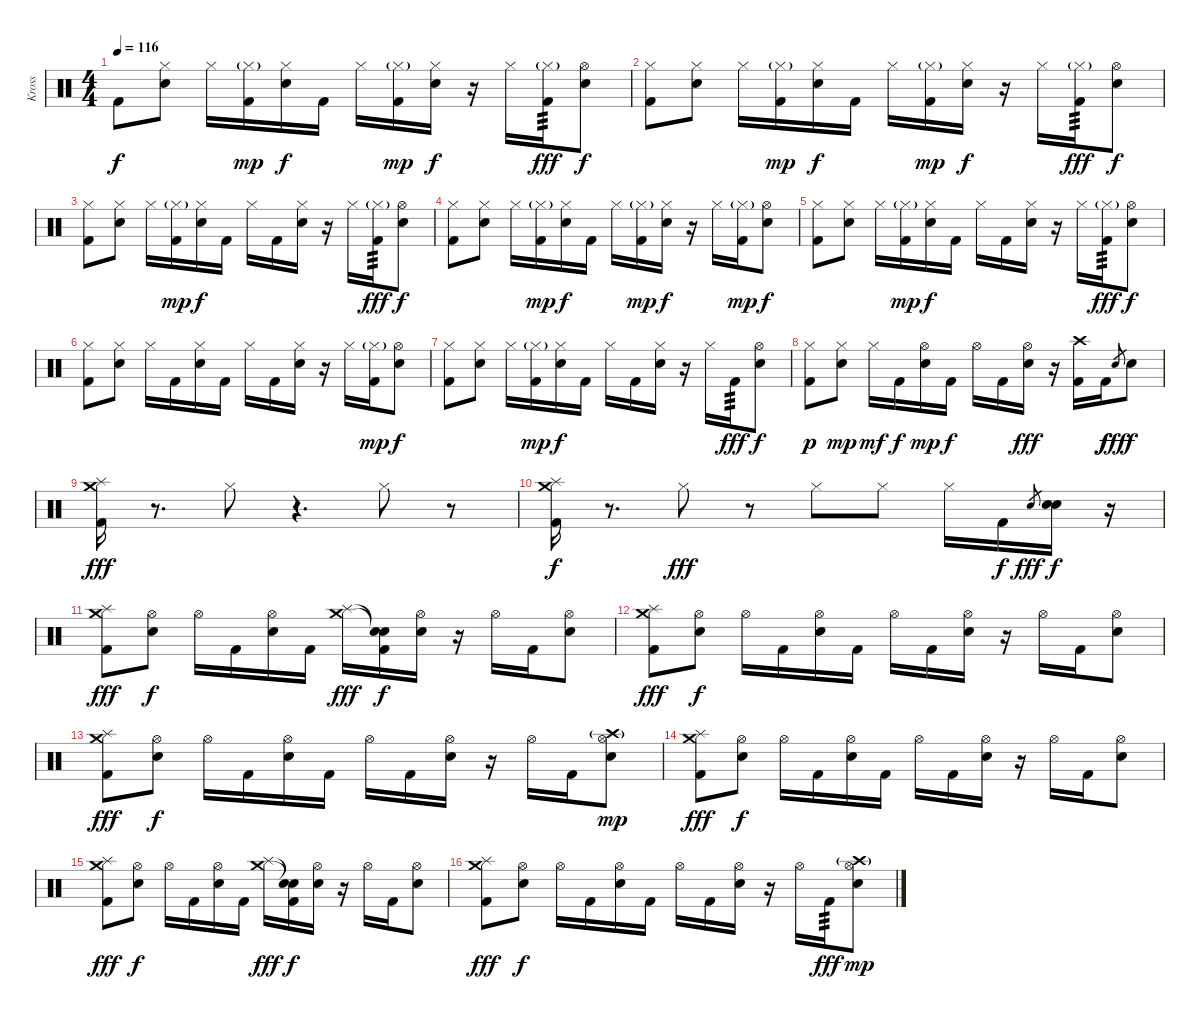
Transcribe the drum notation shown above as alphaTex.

\track ("Kross" "Kross") {instrument percussion}
\staff {score}
\articulation defaults
\ts (4 4)
\tempo 116
\clef neutral
\ks c "Kick (hit) 2".8{dy f}
("Hi-Hat (closed)" "Electric Snare (hit)").8 "Hi-Hat (closed)".16 ("Hi-Hat (closed)"{g} "Kick (hit) 2").16{dy mp} ("Hi-Hat (closed)" "Electric Snare (hit)").16{dy f} "Kick (hit) 2".16 "Hi-Hat (closed)".16 ("Hi-Hat (closed)"{g} "Kick (hit) 2").16{dy mp} ("Hi-Hat (closed)" "Electric Snare (hit)").16{dy f} r.16 "Hi-Hat (closed)".16 ("Hi-Hat (closed)"{g} "Kick (hit) 2").16{tp 3 dy fff} ("Hi-Hat (open)" "Electric Snare (hit)").8{dy f} |
("Hi-Hat (closed)" "Kick (hit) 2").8 ("Hi-Hat (closed)" "Electric Snare (hit)").8 "Hi-Hat (closed)".16 ("Hi-Hat (closed)"{g} "Kick (hit) 2").16{dy mp} ("Hi-Hat (closed)" "Electric Snare (hit)").16{dy f} "Kick (hit) 2".16 "Hi-Hat (closed)".16 ("Hi-Hat (closed)"{g} "Kick (hit) 2").16{dy mp} ("Hi-Hat (closed)" "Electric Snare (hit)").16{dy f} r.16 "Hi-Hat (closed)".16 ("Hi-Hat (closed)"{g} "Kick (hit) 2").16{tp 3 dy fff} ("Hi-Hat (open)" "Electric Snare (hit)").8{dy f} |
("Hi-Hat (closed)" "Kick (hit) 2").8 ("Hi-Hat (closed)" "Electric Snare (hit)").8 "Hi-Hat (closed)".16 ("Hi-Hat (closed)"{g} "Kick (hit) 2").16{dy mp} ("Hi-Hat (closed)" "Electric Snare (hit)").16{dy f} "Kick (hit) 2".16 "Hi-Hat (closed)".16 "Kick (hit) 2".16 ("Hi-Hat (closed)" "Electric Snare (hit)").16 r.16 "Hi-Hat (closed)".16 ("Hi-Hat (closed)"{g} "Kick (hit) 2").16{tp 3 dy fff} ("Hi-Hat (open)" "Electric Snare (hit)").8{dy f} |
("Hi-Hat (closed)" "Kick (hit) 2").8 ("Hi-Hat (closed)" "Electric Snare (hit)").8 "Hi-Hat (closed)".16 ("Hi-Hat (closed)"{g} "Kick (hit) 2").16{dy mp} ("Hi-Hat (closed)" "Electric Snare (hit)").16{dy f} "Kick (hit) 2".16 "Hi-Hat (closed)".16 ("Hi-Hat (closed)"{g} "Kick (hit) 2").16{dy mp} ("Hi-Hat (closed)" "Electric Snare (hit)").16{dy f} r.16 "Hi-Hat (closed)".16 ("Hi-Hat (closed)"{g} "Kick (hit) 2").16{dy mp} ("Hi-Hat (open)" "Electric Snare (hit)").8{dy f} |
("Hi-Hat (closed)" "Kick (hit) 2").8 ("Hi-Hat (closed)" "Electric Snare (hit)").8 "Hi-Hat (closed)".16 ("Hi-Hat (closed)"{g} "Kick (hit) 2").16{dy mp} ("Hi-Hat (closed)" "Electric Snare (hit)").16{dy f} "Kick (hit) 2".16 "Hi-Hat (closed)".16 "Kick (hit) 2".16 ("Hi-Hat (closed)" "Electric Snare (hit)").16 r.16 "Hi-Hat (closed)".16 ("Hi-Hat (closed)"{g} "Kick (hit) 2").16{tp 3 dy fff} ("Hi-Hat (open)" "Electric Snare (hit)").8{dy f} |
("Hi-Hat (closed)" "Kick (hit) 2").8 ("Hi-Hat (closed)" "Electric Snare (hit)").8 "Hi-Hat (closed)".16 "Kick (hit) 2".16 ("Hi-Hat (closed)" "Electric Snare (hit)").16 "Kick (hit) 2".16 "Hi-Hat (closed)".16 "Kick (hit) 2".16 ("Hi-Hat (closed)" "Electric Snare (hit)").16 r.16 "Hi-Hat (closed)".16 ("Hi-Hat (closed)"{g} "Kick (hit) 2").16{dy mp} ("Hi-Hat (open)" "Electric Snare (hit)").8{dy f} |
("Hi-Hat (closed)" "Kick (hit) 2").8 ("Hi-Hat (closed)" "Electric Snare (hit)").8 "Hi-Hat (closed)".16 ("Hi-Hat (closed)"{g} "Kick (hit) 2").16{dy mp} ("Hi-Hat (closed)" "Electric Snare (hit)").16{dy f} "Kick (hit) 2".16 "Hi-Hat (closed)".16 "Kick (hit) 2".16 ("Hi-Hat (closed)" "Electric Snare (hit)").16 r.16 "Hi-Hat (closed)".16 "Kick (hit) 2".16{tp 3 dy fff} ("Hi-Hat (open)" "Electric Snare (hit)").8{dy f} |
("Hi-Hat (closed)" "Kick (hit) 2").8{dy p} ("Hi-Hat (closed)" "Electric Snare (hit)").8{dy mp} "Hi-Hat (closed)".16{dy mf} "Kick (hit) 2".16{dy f} ("Hi-Hat (open)" "Electric Snare (hit)").16{dy mp} "Kick (hit) 2".16{dy f} "Hi-Hat (open)".16 "Kick (hit) 2".16 ("Hi-Hat (open)" "Electric Snare (hit)").16{dy fff} r.16 ("Crash high (hit)" "Kick (hit) 2").16 "Kick (hit) 2".16{dy f} "Electric Snare (hit)".8{gr dy fff} "Electric Snare (hit)".8{dy f} |
("Crash medium (hit)" "Splash (hit)" "Kick (hit) 2").16{dy fff} r.8{d} "Hi-Hat (closed)".8 r.4{d} "Hi-Hat (closed)".8 r.8 |
("Crash medium (hit)" "Splash (hit)" "Kick (hit) 2").16{dy f} r.8{d} "Hi-Hat (closed)".8{dy fff} r.8 "Hi-Hat (closed)".8 "Hi-Hat (closed)".8 "Hi-Hat (closed)".16 "Kick (hit) 2".16{dy f} "Electric Snare (hit)".8{gr dy fff} ("Electric Snare (hit)" "Electric Snare (hit)").16{dy f} r.16 |
("Crash medium (hit)" "Splash (hit)" "Kick (hit) 2").8{dy fff} ("Hi-Hat (open)" "Electric Snare (hit)").8{dy f} "Hi-Hat (open)".16 "Kick (hit) 2".16 ("Hi-Hat (open)" "Electric Snare (hit)").16 "Kick (hit) 2".16 ("Crash medium (hit)" "Splash (hit)").16{dy fff} ("Snare (hit)"{t} "Snare (hit)"{t} "Kick (hit) 2").16{dy f} ("Hi-Hat (open)" "Electric Snare (hit)").16 r.16 "Hi-Hat (open)".16 "Kick (hit) 2".16 ("Hi-Hat (open)" "Electric Snare (hit)").8 |
("Crash medium (hit)" "Splash (hit)" "Kick (hit) 2").8{dy fff} ("Hi-Hat (open)" "Electric Snare (hit)").8{dy f} "Hi-Hat (open)".16 "Kick (hit) 2".16 ("Hi-Hat (open)" "Electric Snare (hit)").16 "Kick (hit) 2".16 "Hi-Hat (open)".16 "Kick (hit) 2".16 ("Hi-Hat (open)" "Electric Snare (hit)").16 r.16 "Hi-Hat (open)".16 "Kick (hit) 2".16 ("Hi-Hat (open)" "Electric Snare (hit)").8 |
("Crash medium (hit)" "Splash (hit)" "Kick (hit) 2").8{dy fff} ("Hi-Hat (open)" "Electric Snare (hit)").8{dy f} "Hi-Hat (open)".16 "Kick (hit) 2".16 ("Hi-Hat (open)" "Electric Snare (hit)").16 "Kick (hit) 2".16 "Hi-Hat (open)".16 "Kick (hit) 2".16 ("Hi-Hat (open)" "Electric Snare (hit)").16 r.16 "Hi-Hat (open)".16 "Kick (hit) 2".16 ("Hi-Hat (open)" "Crash high (hit)"{g} "Electric Snare (hit)").8{dy mp} |
("Crash medium (hit)" "Splash (hit)" "Kick (hit) 2").8{dy fff} ("Hi-Hat (open)" "Electric Snare (hit)").8{dy f} "Hi-Hat (open)".16 "Kick (hit) 2".16 ("Hi-Hat (open)" "Electric Snare (hit)").16 "Kick (hit) 2".16 "Hi-Hat (open)".16 "Kick (hit) 2".16 ("Hi-Hat (open)" "Electric Snare (hit)").16 r.16 "Hi-Hat (open)".16 "Kick (hit) 2".16 ("Hi-Hat (open)" "Electric Snare (hit)").8 |
("Crash medium (hit)" "Splash (hit)" "Kick (hit) 2").8{dy fff} ("Hi-Hat (open)" "Electric Snare (hit)").8{dy f} "Hi-Hat (open)".16 "Kick (hit) 2".16 ("Hi-Hat (open)" "Electric Snare (hit)").16 "Kick (hit) 2".16 ("Crash medium (hit)" "Splash (hit)").16{dy fff} ("Snare (hit)"{t} "Snare (hit)"{t} "Kick (hit) 2").16{dy f} ("Hi-Hat (open)" "Electric Snare (hit)").16 r.16 "Hi-Hat (open)".16 "Kick (hit) 2".16 ("Hi-Hat (open)" "Electric Snare (hit)").8 |
("Crash medium (hit)" "Splash (hit)" "Kick (hit) 2").8{dy fff} ("Hi-Hat (open)" "Electric Snare (hit)").8{dy f} "Hi-Hat (open)".16 "Kick (hit) 2".16 ("Hi-Hat (open)" "Electric Snare (hit)").16 "Kick (hit) 2".16 "Hi-Hat (open)".16 "Kick (hit) 2".16 ("Hi-Hat (open)" "Electric Snare (hit)").16 r.16 "Hi-Hat (open)".16 "Kick (hit) 2".16{tp 3 dy fff} ("Hi-Hat (open)" "Crash high (hit)"{g} "Electric Snare (hit)").8{dy mp}
